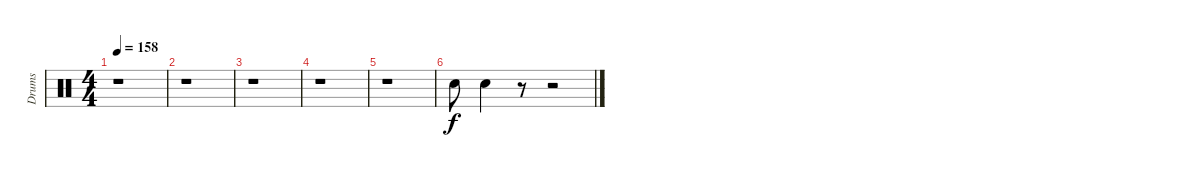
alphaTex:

\track ("Drums" "Drums") {instrument percussion}
\staff {score}
\articulation defaults
\ts (4 4)
\tempo 158
\clef neutral
\ks c
r.1{dy fff} |
r.1 |
r.1 |
r.1 |
r.1 |
"Electric Snare (hit)".8{dy f} "Electric Snare (hit)".4 r.8 r.2
